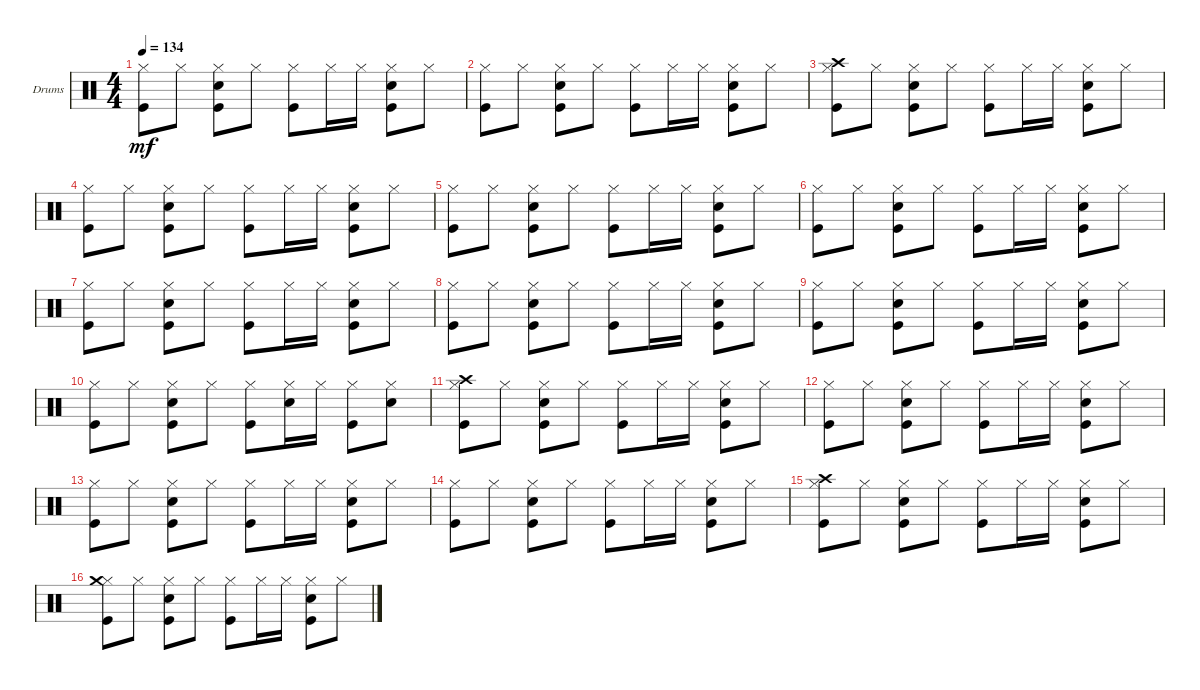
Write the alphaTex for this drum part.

\bracketExtendMode groupsimilarinstruments
\firstSystemTrackNameOrientation horizontal
\otherSystemsTrackNameOrientation horizontal
\track ("DRUMSET" "Drums") {instrument percussion}
\staff {score}
\articulation defaults
\ts (4 4)
\tempo 134
\clef neutral
\ks c
("Kick (hit)" "Hi-Hat (closed)").8{dy mf} "Hi-Hat (closed)".8 ("Kick (hit)" "Snare (hit) 2" "Hi-Hat (closed)").8 "Hi-Hat (closed)".8 ("Kick (hit)" "Hi-Hat (closed)").8 "Hi-Hat (closed)".16 "Hi-Hat (closed)".16 ("Kick (hit)" "Snare (hit) 2" "Hi-Hat (closed)").8 "Hi-Hat (closed)".8 |
("Kick (hit)" "Hi-Hat (closed)").8 "Hi-Hat (closed)".8 ("Kick (hit)" "Snare (hit) 2" "Hi-Hat (closed)").8 "Hi-Hat (closed)".8 ("Kick (hit)" "Hi-Hat (closed)").8 "Hi-Hat (closed)".16 "Hi-Hat (closed)".16 ("Kick (hit)" "Snare (hit) 2" "Hi-Hat (closed)").8 "Hi-Hat (closed)".8 |
("Kick (hit)" "Hi-Hat (closed)" "Crash high (hit)").8 "Hi-Hat (closed)".8 ("Kick (hit)" "Snare (hit) 2" "Hi-Hat (closed)").8 "Hi-Hat (closed)".8 ("Kick (hit)" "Hi-Hat (closed)").8 "Hi-Hat (closed)".16 "Hi-Hat (closed)".16 ("Kick (hit)" "Snare (hit) 2" "Hi-Hat (closed)").8 "Hi-Hat (closed)".8 |
("Kick (hit)" "Hi-Hat (closed)").8 "Hi-Hat (closed)".8 ("Kick (hit)" "Snare (hit) 2" "Hi-Hat (closed)").8 "Hi-Hat (closed)".8 ("Kick (hit)" "Hi-Hat (closed)").8 "Hi-Hat (closed)".16 "Hi-Hat (closed)".16 ("Kick (hit)" "Snare (hit) 2" "Hi-Hat (closed)").8 "Hi-Hat (closed)".8 |
("Kick (hit)" "Hi-Hat (closed)").8 "Hi-Hat (closed)".8 ("Kick (hit)" "Snare (hit) 2" "Hi-Hat (closed)").8 "Hi-Hat (closed)".8 ("Kick (hit)" "Hi-Hat (closed)").8 "Hi-Hat (closed)".16 "Hi-Hat (closed)".16 ("Kick (hit)" "Snare (hit) 2" "Hi-Hat (closed)").8 "Hi-Hat (closed)".8 |
("Kick (hit)" "Hi-Hat (closed)").8 "Hi-Hat (closed)".8 ("Kick (hit)" "Snare (hit) 2" "Hi-Hat (closed)").8 "Hi-Hat (closed)".8 ("Kick (hit)" "Hi-Hat (closed)").8 "Hi-Hat (closed)".16 "Hi-Hat (closed)".16 ("Kick (hit)" "Snare (hit) 2" "Hi-Hat (closed)").8 "Hi-Hat (closed)".8 |
("Kick (hit)" "Hi-Hat (closed)").8 "Hi-Hat (closed)".8 ("Kick (hit)" "Snare (hit) 2" "Hi-Hat (closed)").8 "Hi-Hat (closed)".8 ("Kick (hit)" "Hi-Hat (closed)").8 "Hi-Hat (closed)".16 "Hi-Hat (closed)".16 ("Kick (hit)" "Snare (hit) 2" "Hi-Hat (closed)").8 "Hi-Hat (closed)".8 |
("Kick (hit)" "Hi-Hat (closed)").8 "Hi-Hat (closed)".8 ("Kick (hit)" "Snare (hit) 2" "Hi-Hat (closed)").8 "Hi-Hat (closed)".8 ("Kick (hit)" "Hi-Hat (closed)").8 "Hi-Hat (closed)".16 "Hi-Hat (closed)".16 ("Kick (hit)" "Snare (hit) 2" "Hi-Hat (closed)").8 "Hi-Hat (closed)".8 |
("Kick (hit)" "Hi-Hat (closed)").8 "Hi-Hat (closed)".8 ("Kick (hit)" "Snare (hit) 2" "Hi-Hat (closed)").8 "Hi-Hat (closed)".8 ("Kick (hit)" "Hi-Hat (closed)").8 "Hi-Hat (closed)".16 "Hi-Hat (closed)".16 ("Kick (hit)" "Snare (hit) 2" "Hi-Hat (closed)").8 "Hi-Hat (closed)".8 |
("Kick (hit)" "Hi-Hat (closed)").8 "Hi-Hat (closed)".8 ("Kick (hit)" "Snare (hit) 2" "Hi-Hat (closed)").8 "Hi-Hat (closed)".8 ("Kick (hit)" "Hi-Hat (closed)").8 ("Snare (hit) 2" "Hi-Hat (closed)").16 "Hi-Hat (closed)".16 ("Kick (hit)" "Hi-Hat (closed)").8 ("Snare (hit) 2" "Hi-Hat (closed)").8 |
("Kick (hit)" "Hi-Hat (closed)" "Crash high (hit)").8 "Hi-Hat (closed)".8 ("Kick (hit)" "Snare (hit) 2" "Hi-Hat (closed)").8 "Hi-Hat (closed)".8 ("Kick (hit)" "Hi-Hat (closed)").8 "Hi-Hat (closed)".16 "Hi-Hat (closed)".16 ("Kick (hit)" "Snare (hit) 2" "Hi-Hat (closed)").8 "Hi-Hat (closed)".8 |
("Kick (hit)" "Hi-Hat (closed)").8 "Hi-Hat (closed)".8 ("Kick (hit)" "Snare (hit) 2" "Hi-Hat (closed)").8 "Hi-Hat (closed)".8 ("Kick (hit)" "Hi-Hat (closed)").8 "Hi-Hat (closed)".16 "Hi-Hat (closed)".16 ("Kick (hit)" "Snare (hit) 2" "Hi-Hat (closed)").8 "Hi-Hat (closed)".8 |
("Kick (hit)" "Hi-Hat (closed)").8 "Hi-Hat (closed)".8 ("Kick (hit)" "Snare (hit) 2" "Hi-Hat (closed)").8 "Hi-Hat (closed)".8 ("Kick (hit)" "Hi-Hat (closed)").8 "Hi-Hat (closed)".16 "Hi-Hat (closed)".16 ("Kick (hit)" "Snare (hit) 2" "Hi-Hat (closed)").8 "Hi-Hat (closed)".8 |
("Kick (hit)" "Hi-Hat (closed)").8 "Hi-Hat (closed)".8 ("Kick (hit)" "Snare (hit) 2" "Hi-Hat (closed)").8 "Hi-Hat (closed)".8 ("Kick (hit)" "Hi-Hat (closed)").8 "Hi-Hat (closed)".16 "Hi-Hat (closed)".16 ("Kick (hit)" "Snare (hit) 2" "Hi-Hat (closed)").8 "Hi-Hat (closed)".8 |
("Kick (hit)" "Hi-Hat (closed)" "Crash high (hit)").8 "Hi-Hat (closed)".8 ("Kick (hit)" "Snare (hit) 2" "Hi-Hat (closed)").8 "Hi-Hat (closed)".8 ("Kick (hit)" "Hi-Hat (closed)").8 "Hi-Hat (closed)".16 "Hi-Hat (closed)".16 ("Kick (hit)" "Snare (hit) 2" "Hi-Hat (closed)").8 "Hi-Hat (closed)".8 |
("Kick (hit)" "Hi-Hat (closed)" "Crash medium (hit)").8 "Hi-Hat (closed)".8 ("Kick (hit)" "Snare (hit) 2" "Hi-Hat (closed)").8 "Hi-Hat (closed)".8 ("Kick (hit)" "Hi-Hat (closed)").8 "Hi-Hat (closed)".16 "Hi-Hat (closed)".16 ("Kick (hit)" "Snare (hit) 2" "Hi-Hat (closed)").8 "Hi-Hat (closed)".8
